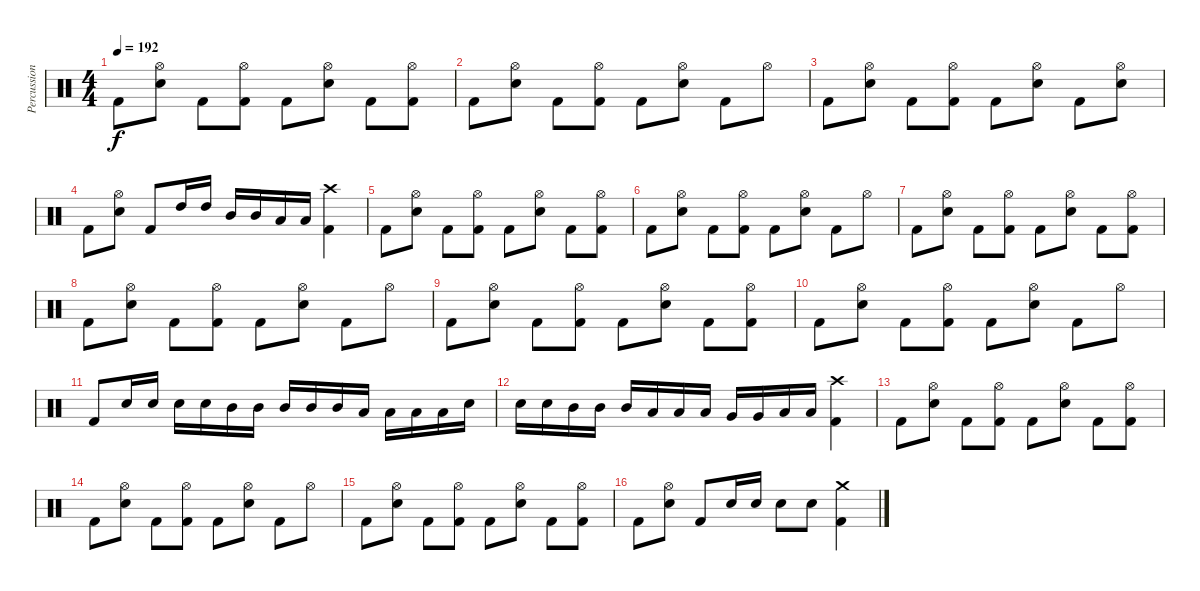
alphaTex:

\track ("Percussion" "Percussion") {instrument percussion}
\staff {score}
\articulation defaults
\ts (4 4)
\tempo 192
\clef neutral
\ks c "Kick (hit) 2".8{dy f}
("Hi-Hat (open)" "Electric Snare (hit)").8 "Kick (hit) 2".8 ("Hi-Hat (open)" "Kick (hit) 2").8 "Kick (hit) 2".8 ("Hi-Hat (open)" "Electric Snare (hit)").8 "Kick (hit) 2".8 ("Hi-Hat (open)" "Kick (hit) 2").8 |
"Kick (hit) 2".8 ("Hi-Hat (open)" "Electric Snare (hit)").8 "Kick (hit) 2".8 ("Hi-Hat (open)" "Kick (hit) 2").8 "Kick (hit) 2".8 ("Hi-Hat (open)" "Electric Snare (hit)").8 "Kick (hit) 2".8 "Hi-Hat (open)".8 |
"Kick (hit) 2".8 ("Hi-Hat (open)" "Electric Snare (hit)").8 "Kick (hit) 2".8 ("Hi-Hat (open)" "Kick (hit) 2").8 "Kick (hit) 2".8 ("Hi-Hat (open)" "Electric Snare (hit)").8 "Kick (hit) 2".8 ("Hi-Hat (open)" "Electric Snare (hit)").8 |
"Kick (hit) 2".8 ("Hi-Hat (open)" "Electric Snare (hit)").8 "Kick (hit) 2".8 "High Tom (hit)".16 "High Tom (hit)".16 "Mid Tom (hit)".16 "Mid Tom (hit)".16 "Low Tom (hit)".16 "Low Tom (hit)".16 ("Crash high (hit)" "Kick (hit) 2").4 |
"Kick (hit) 2".8 ("Hi-Hat (open)" "Electric Snare (hit)").8 "Kick (hit) 2".8 ("Hi-Hat (open)" "Kick (hit) 2").8 "Kick (hit) 2".8 ("Hi-Hat (open)" "Electric Snare (hit)").8 "Kick (hit) 2".8 ("Hi-Hat (open)" "Kick (hit) 2").8 |
"Kick (hit) 2".8 ("Hi-Hat (open)" "Electric Snare (hit)").8 "Kick (hit) 2".8 ("Hi-Hat (open)" "Kick (hit) 2").8 "Kick (hit) 2".8 ("Hi-Hat (open)" "Electric Snare (hit)").8 "Kick (hit) 2".8 "Hi-Hat (open)".8 |
"Kick (hit) 2".8 ("Hi-Hat (open)" "Electric Snare (hit)").8 "Kick (hit) 2".8 ("Hi-Hat (open)" "Kick (hit) 2").8 "Kick (hit) 2".8 ("Hi-Hat (open)" "Electric Snare (hit)").8 "Kick (hit) 2".8 ("Hi-Hat (open)" "Kick (hit) 2").8 |
"Kick (hit) 2".8 ("Hi-Hat (open)" "Electric Snare (hit)").8 "Kick (hit) 2".8 ("Hi-Hat (open)" "Kick (hit) 2").8 "Kick (hit) 2".8 ("Hi-Hat (open)" "Electric Snare (hit)").8 "Kick (hit) 2".8 "Hi-Hat (open)".8 |
"Kick (hit) 2".8 ("Hi-Hat (open)" "Electric Snare (hit)").8 "Kick (hit) 2".8 ("Hi-Hat (open)" "Kick (hit) 2").8 "Kick (hit) 2".8 ("Hi-Hat (open)" "Electric Snare (hit)").8 "Kick (hit) 2".8 ("Hi-Hat (open)" "Kick (hit) 2").8 |
"Kick (hit) 2".8 ("Hi-Hat (open)" "Electric Snare (hit)").8 "Kick (hit) 2".8 ("Hi-Hat (open)" "Kick (hit) 2").8 "Kick (hit) 2".8 ("Hi-Hat (open)" "Electric Snare (hit)").8 "Kick (hit) 2".8 "Hi-Hat (open)".8 |
"Kick (hit) 2".8 "Electric Snare (hit)".16 "Electric Snare (hit)".16 "Electric Snare (hit)".16 "Electric Snare (hit)".16 "Mid Tom (hit)".16 "Mid Tom (hit)".16 "Mid Tom (hit)".16 "Mid Tom (hit)".16 "Mid Tom (hit)".16 "Low Tom (hit)".16 "Low Tom (hit)".16 "Low Tom (hit)".16 "Low Tom (hit)".16 "Electric Snare (hit)".16 |
"Electric Snare (hit)".16 "Electric Snare (hit)".16 "Mid Tom (hit)".16 "Mid Tom (hit)".16 "Mid Tom (hit)".16 "Low Tom (hit)".16 "Low Tom (hit)".16 "Low Tom (hit)".16 "Very Low Tom (hit)".16 "Very Low Tom (hit)".16 "Low Floor Tom (hit)".16 "Low Floor Tom (hit)".16 ("Crash high (hit)" "Kick (hit) 2").4 |
"Kick (hit) 2".8 ("Hi-Hat (open)" "Electric Snare (hit)").8 "Kick (hit) 2".8 ("Hi-Hat (open)" "Kick (hit) 2").8 "Kick (hit) 2".8 ("Hi-Hat (open)" "Electric Snare (hit)").8 "Kick (hit) 2".8 ("Hi-Hat (open)" "Kick (hit) 2").8 |
"Kick (hit) 2".8 ("Hi-Hat (open)" "Electric Snare (hit)").8 "Kick (hit) 2".8 ("Hi-Hat (open)" "Kick (hit) 2").8 "Kick (hit) 2".8 ("Hi-Hat (open)" "Electric Snare (hit)").8 "Kick (hit) 2".8 "Hi-Hat (open)".8 |
"Kick (hit) 2".8 ("Hi-Hat (open)" "Electric Snare (hit)").8 "Kick (hit) 2".8 ("Hi-Hat (open)" "Kick (hit) 2").8 "Kick (hit) 2".8 ("Hi-Hat (open)" "Electric Snare (hit)").8 "Kick (hit) 2".8 ("Hi-Hat (open)" "Kick (hit) 2").8 |
"Kick (hit) 2".8 ("Hi-Hat (open)" "Electric Snare (hit)").8 "Kick (hit) 2".8 "Electric Snare (hit)".16 "Electric Snare (hit)".16 "Electric Snare (hit)".8 "Electric Snare (hit)".8 ("Crash medium (hit)" "Kick (hit) 2").4
